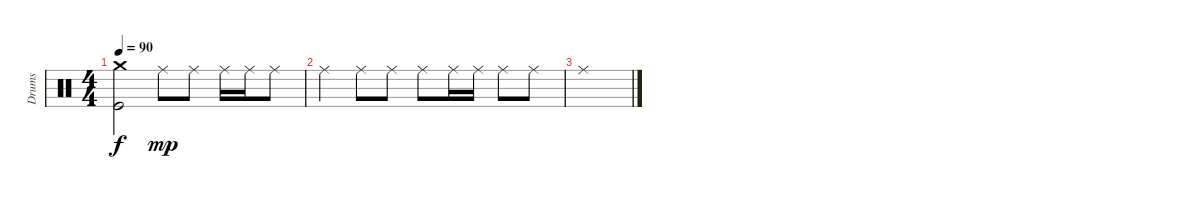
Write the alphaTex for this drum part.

\track ("Drums" "Drums") {instrument percussion}
\staff {score}
\articulation defaults
\ts (4 4)
\tempo 90
\clef neutral
\ks c
("Kick (hit)" "Crash medium (hit)").2{dy f} "Ride (middle)".8{dy mp} "Ride (middle)".8 "Ride (middle)".16 "Ride (middle)".16 "Ride (middle)".8 |
"Ride (middle)".4 "Ride (middle)".8 "Ride (middle)".8 "Ride (middle)".8 "Ride (middle)".16 "Ride (middle)".16 "Ride (middle)".8 "Ride (middle)".8 |
"Ride (middle)".1
